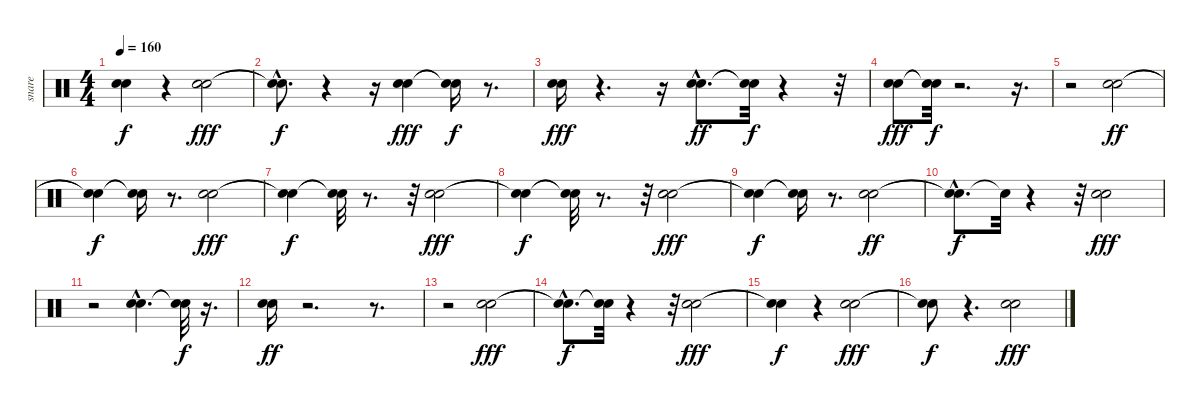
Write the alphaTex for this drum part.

\track ("snare" "snare") {instrument percussion}
\staff {score}
\articulation defaults
\ts (4 4)
\tempo 160
\clef neutral
\ks c
("Snare (hit)"{t} "Snare (hit)"{t}).4{dy f} r.4 ("Electric Snare (hit)" "Snare (hit) 2").2{dy fff} |
("Snare (hit)"{t} "Snare (hit)"{hac t}).8{d dy f} r.4 r.16 ("Snare (hit) 2" "Electric Snare (hit)").4{dy fff} ("Snare (hit)"{t} "Snare (hit)"{t}).16{dy f} r.8{d} |
("Electric Snare (hit)" "Snare (hit) 2").16{dy fff} r.4{d} r.16 ("Electric Snare (hit)"{hac} "Snare (hit) 2"{hac}).8{d dy ff} ("Snare (hit)"{t} "Snare (hit)"{t}).32{dy f} r.4 r.32 |
("Electric Snare (hit)" "Snare (hit) 2").8{dy fff} ("Snare (hit)"{t} "Snare (hit)"{t}).32{dy f} r.2{d} r.16{d} |
r.2 ("Hand Clap (hit)" "Snare (hit) 2").2{dy ff} |
("Snare (hit)"{t} "Snare (hit)"{t}).4{dy f} ("Snare (hit)"{t} "Snare (hit)"{t}).16 r.8{d} ("Hand Clap (hit)" "Snare (hit) 2").2{dy fff} |
("Snare (hit)"{t} "Snare (hit)"{t}).4{dy f} ("Snare (hit)"{t} "Snare (hit)"{t}).32 r.8{d} r.32 ("Hand Clap (hit)" "Snare (hit) 2").2{dy fff} |
("Snare (hit)"{t} "Snare (hit)"{t}).4{dy f} ("Snare (hit)"{t} "Snare (hit)"{t}).32 r.8{d} r.32 ("Hand Clap (hit)" "Snare (hit) 2").2{dy fff} |
("Snare (hit)"{t} "Snare (hit)"{t}).4{dy f} ("Snare (hit)"{t} "Snare (hit)"{t}).16 r.8{d} ("Hand Clap (hit)" "Snare (hit) 2").2{dy ff} |
("Snare (hit)"{hac t} "Snare (hit)"{hac t}).8{d dy f} "Snare (hit)"{t}.32 r.4 r.32 ("Hand Clap (hit)" "Snare (hit) 2").2{dy fff} |
r.2 ("Hand Clap (hit)"{hac} "Snare (hit) 2"{hac}).4{d} ("Snare (hit)"{t} "Snare (hit)"{t}).32{dy f} r.16{d} |
("Hand Clap (hit)" "Snare (hit) 2").16{dy ff} r.2{d} r.8{d} |
r.2 ("Electric Snare (hit)" "Snare (hit) 2").2{dy fff} |
("Snare (hit)"{hac t} "Snare (hit)"{hac t}).8{d dy f} ("Snare (hit)"{t} "Snare (hit)"{t}).32 r.4 r.32 ("Snare (hit) 2" "Electric Snare (hit)").2{dy fff} |
("Snare (hit)"{t} "Snare (hit)"{t}).4{dy f} r.4 ("Snare (hit) 2" "Electric Snare (hit)").2{dy fff} |
("Snare (hit)"{t} "Snare (hit)"{t}).8{dy f} r.4{d} ("Snare (hit) 2" "Electric Snare (hit)").2{dy fff}
